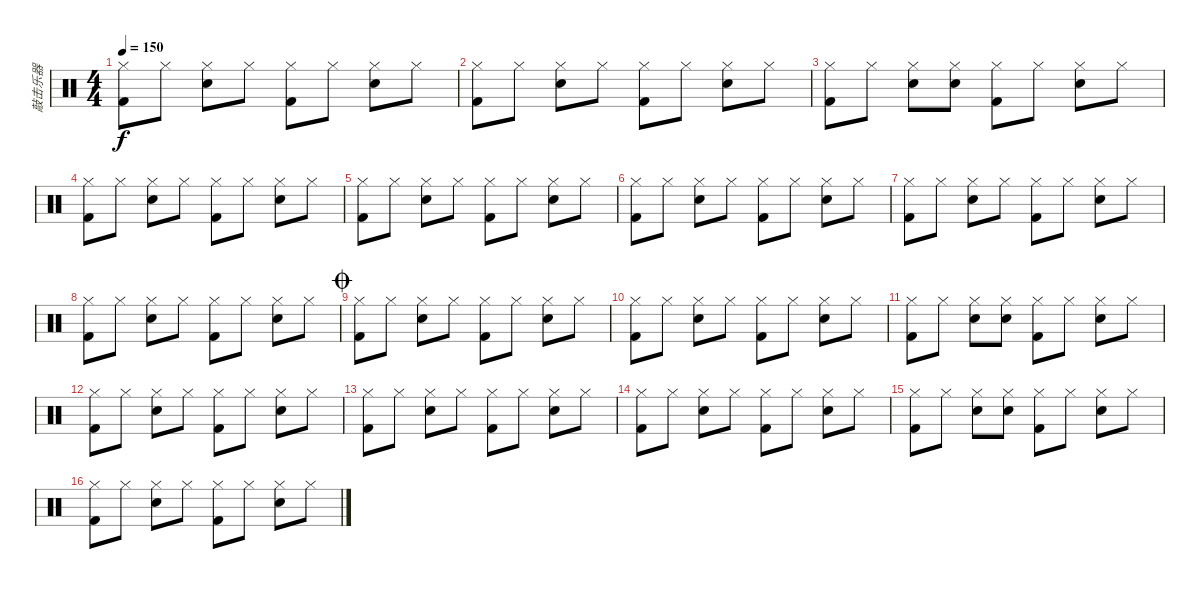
\track ("敲击乐器" "敲击乐器") {instrument percussion}
\staff {score}
\articulation defaults
\ts (4 4)
\tempo 150
\clef neutral
\ks c
("Kick (hit) 2" "Hi-Hat (closed)").8{dy f} "Hi-Hat (closed)".8 ("Electric Snare (hit)" "Hi-Hat (closed)").8 "Hi-Hat (closed)".8 ("Kick (hit) 2" "Hi-Hat (closed)").8 "Hi-Hat (closed)".8 ("Electric Snare (hit)" "Hi-Hat (closed)").8 "Hi-Hat (closed)".8 |
("Kick (hit) 2" "Hi-Hat (closed)").8 "Hi-Hat (closed)".8 ("Electric Snare (hit)" "Hi-Hat (closed)").8 "Hi-Hat (closed)".8 ("Kick (hit) 2" "Hi-Hat (closed)").8 "Hi-Hat (closed)".8 ("Electric Snare (hit)" "Hi-Hat (closed)").8 "Hi-Hat (closed)".8 |
("Kick (hit) 2" "Hi-Hat (closed)").8 "Hi-Hat (closed)".8 ("Electric Snare (hit)" "Hi-Hat (closed)").8 ("Hi-Hat (closed)" "Electric Snare (hit)").8 ("Kick (hit) 2" "Hi-Hat (closed)").8 "Hi-Hat (closed)".8 ("Electric Snare (hit)" "Hi-Hat (closed)").8 "Hi-Hat (closed)".8 |
("Kick (hit) 2" "Hi-Hat (closed)").8 "Hi-Hat (closed)".8 ("Electric Snare (hit)" "Hi-Hat (closed)").8 "Hi-Hat (closed)".8 ("Kick (hit) 2" "Hi-Hat (closed)").8 "Hi-Hat (closed)".8 ("Electric Snare (hit)" "Hi-Hat (closed)").8 "Hi-Hat (closed)".8 |
("Kick (hit) 2" "Hi-Hat (closed)").8 "Hi-Hat (closed)".8 ("Electric Snare (hit)" "Hi-Hat (closed)").8 "Hi-Hat (closed)".8 ("Kick (hit) 2" "Hi-Hat (closed)").8 "Hi-Hat (closed)".8 ("Electric Snare (hit)" "Hi-Hat (closed)").8 "Hi-Hat (closed)".8 |
("Kick (hit) 2" "Hi-Hat (closed)").8 "Hi-Hat (closed)".8 ("Electric Snare (hit)" "Hi-Hat (closed)").8 "Hi-Hat (closed)".8 ("Kick (hit) 2" "Hi-Hat (closed)").8 "Hi-Hat (closed)".8 ("Electric Snare (hit)" "Hi-Hat (closed)").8 "Hi-Hat (closed)".8 |
("Kick (hit) 2" "Hi-Hat (closed)").8 "Hi-Hat (closed)".8 ("Electric Snare (hit)" "Hi-Hat (closed)").8 "Hi-Hat (closed)".8 ("Kick (hit) 2" "Hi-Hat (closed)").8 "Hi-Hat (closed)".8 ("Electric Snare (hit)" "Hi-Hat (closed)").8 "Hi-Hat (closed)".8 |
("Kick (hit) 2" "Hi-Hat (closed)").8 "Hi-Hat (closed)".8 ("Electric Snare (hit)" "Hi-Hat (closed)").8 "Hi-Hat (closed)".8 ("Kick (hit) 2" "Hi-Hat (closed)").8 "Hi-Hat (closed)".8 ("Electric Snare (hit)" "Hi-Hat (closed)").8 "Hi-Hat (closed)".8 |
\jump coda
("Kick (hit) 2" "Hi-Hat (closed)").8 "Hi-Hat (closed)".8 ("Electric Snare (hit)" "Hi-Hat (closed)").8 "Hi-Hat (closed)".8 ("Kick (hit) 2" "Hi-Hat (closed)").8 "Hi-Hat (closed)".8 ("Electric Snare (hit)" "Hi-Hat (closed)").8 "Hi-Hat (closed)".8 |
("Kick (hit) 2" "Hi-Hat (closed)").8 "Hi-Hat (closed)".8 ("Electric Snare (hit)" "Hi-Hat (closed)").8 "Hi-Hat (closed)".8 ("Kick (hit) 2" "Hi-Hat (closed)").8 "Hi-Hat (closed)".8 ("Electric Snare (hit)" "Hi-Hat (closed)").8 "Hi-Hat (closed)".8 |
("Kick (hit) 2" "Hi-Hat (closed)").8 "Hi-Hat (closed)".8 ("Electric Snare (hit)" "Hi-Hat (closed)").8 ("Hi-Hat (closed)" "Electric Snare (hit)").8 ("Kick (hit) 2" "Hi-Hat (closed)").8 "Hi-Hat (closed)".8 ("Electric Snare (hit)" "Hi-Hat (closed)").8 "Hi-Hat (closed)".8 |
("Kick (hit) 2" "Hi-Hat (closed)").8 "Hi-Hat (closed)".8 ("Electric Snare (hit)" "Hi-Hat (closed)").8 "Hi-Hat (closed)".8 ("Kick (hit) 2" "Hi-Hat (closed)").8 "Hi-Hat (closed)".8 ("Electric Snare (hit)" "Hi-Hat (closed)").8 "Hi-Hat (closed)".8 |
("Kick (hit) 2" "Hi-Hat (closed)").8 "Hi-Hat (closed)".8 ("Electric Snare (hit)" "Hi-Hat (closed)").8 "Hi-Hat (closed)".8 ("Kick (hit) 2" "Hi-Hat (closed)").8 "Hi-Hat (closed)".8 ("Electric Snare (hit)" "Hi-Hat (closed)").8 "Hi-Hat (closed)".8 |
("Kick (hit) 2" "Hi-Hat (closed)").8 "Hi-Hat (closed)".8 ("Electric Snare (hit)" "Hi-Hat (closed)").8 "Hi-Hat (closed)".8 ("Kick (hit) 2" "Hi-Hat (closed)").8 "Hi-Hat (closed)".8 ("Electric Snare (hit)" "Hi-Hat (closed)").8 "Hi-Hat (closed)".8 |
("Kick (hit) 2" "Hi-Hat (closed)").8 "Hi-Hat (closed)".8 ("Electric Snare (hit)" "Hi-Hat (closed)").8 ("Hi-Hat (closed)" "Electric Snare (hit)").8 ("Kick (hit) 2" "Hi-Hat (closed)").8 "Hi-Hat (closed)".8 ("Electric Snare (hit)" "Hi-Hat (closed)").8 "Hi-Hat (closed)".8 |
("Kick (hit) 2" "Hi-Hat (closed)").8 "Hi-Hat (closed)".8 ("Electric Snare (hit)" "Hi-Hat (closed)").8 "Hi-Hat (closed)".8 ("Kick (hit) 2" "Hi-Hat (closed)").8 "Hi-Hat (closed)".8 ("Electric Snare (hit)" "Hi-Hat (closed)").8 "Hi-Hat (closed)".8
